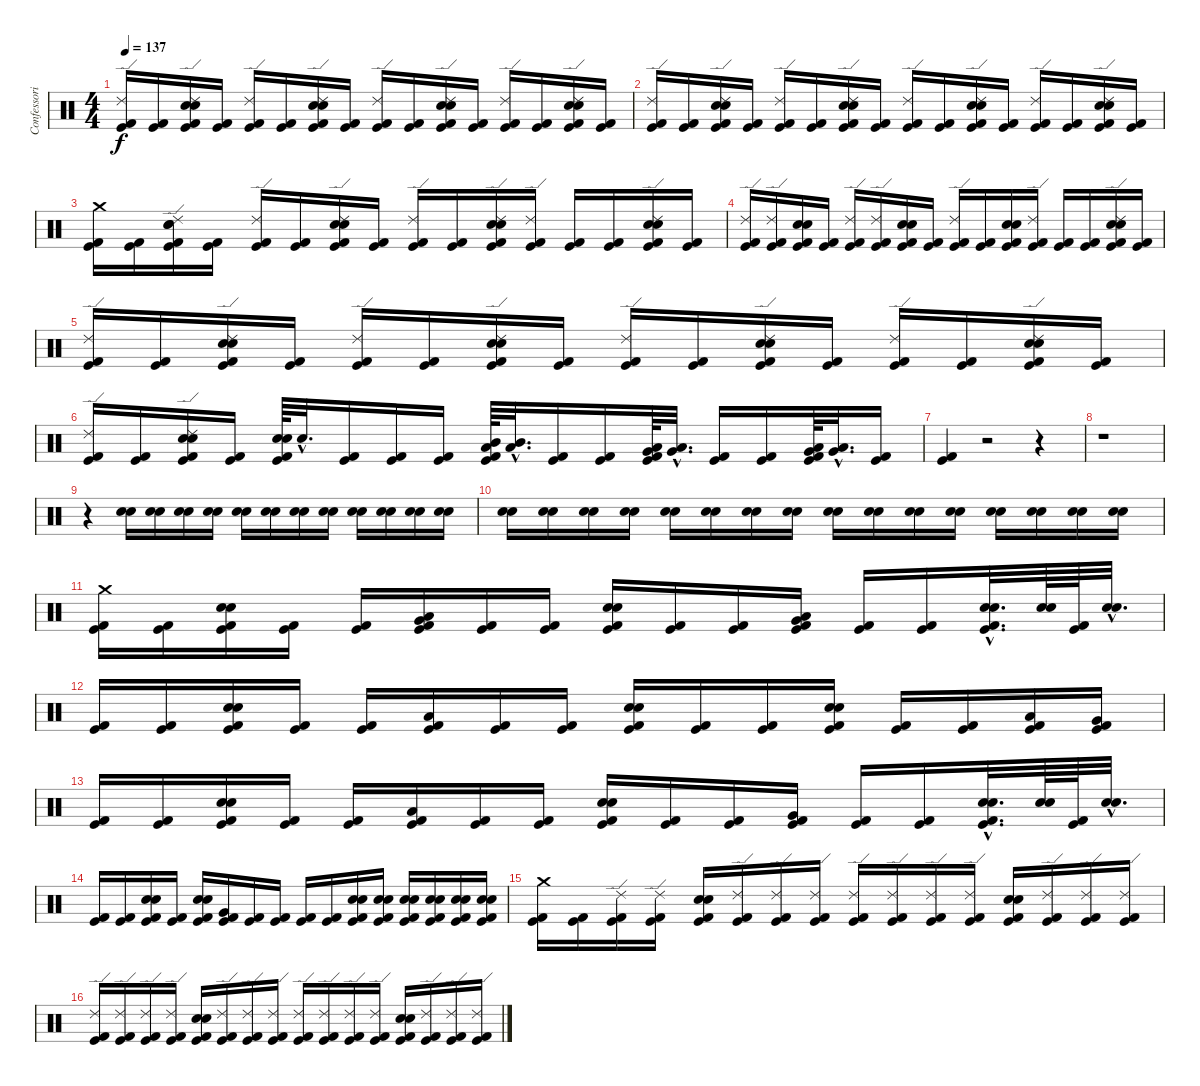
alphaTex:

\track ("Confessori" "Confessori") {instrument percussion}
\staff {score}
\articulation defaults
\ts (4 4)
\tempo 137
\clef neutral
\ks c
("Ride (edge) 2" "Kick (hit) 2" "Kick (hit)").16{dy f} ("Kick (hit) 2" "Kick (hit)").16 ("Electric Snare (hit)" "Snare (hit) 2" "Ride (edge) 2" "Kick (hit) 2" "Kick (hit)").16 ("Kick (hit) 2" "Kick (hit)").16 ("Ride (edge) 2" "Kick (hit) 2" "Kick (hit)").16 ("Kick (hit) 2" "Kick (hit)").16 ("Electric Snare (hit)" "Snare (hit) 2" "Ride (edge) 2" "Kick (hit) 2" "Kick (hit)").16 ("Kick (hit) 2" "Kick (hit)").16 ("Ride (edge) 2" "Kick (hit) 2" "Kick (hit)").16 ("Kick (hit) 2" "Kick (hit)").16 ("Electric Snare (hit)" "Snare (hit) 2" "Ride (edge) 2" "Kick (hit) 2" "Kick (hit)").16 ("Kick (hit) 2" "Kick (hit)").16 ("Ride (edge) 2" "Kick (hit) 2" "Kick (hit)").16 ("Kick (hit) 2" "Kick (hit)").16 ("Electric Snare (hit)" "Snare (hit) 2" "Ride (edge) 2" "Kick (hit) 2" "Kick (hit)").16 ("Kick (hit) 2" "Kick (hit)").16 |
("Ride (edge) 2" "Kick (hit) 2" "Kick (hit)").16 ("Kick (hit) 2" "Kick (hit)").16 ("Electric Snare (hit)" "Snare (hit) 2" "Ride (edge) 2" "Kick (hit) 2" "Kick (hit)").16 ("Kick (hit) 2" "Kick (hit)").16 ("Ride (edge) 2" "Kick (hit) 2" "Kick (hit)").16 ("Kick (hit) 2" "Kick (hit)").16 ("Electric Snare (hit)" "Snare (hit) 2" "Ride (edge) 2" "Kick (hit) 2" "Kick (hit)").16 ("Kick (hit) 2" "Kick (hit)").16 ("Ride (edge) 2" "Kick (hit) 2" "Kick (hit)").16 ("Kick (hit) 2" "Kick (hit)").16 ("Electric Snare (hit)" "Snare (hit) 2" "Ride (edge) 2" "Kick (hit) 2" "Kick (hit)").16 ("Kick (hit) 2" "Kick (hit)").16 ("Ride (edge) 2" "Kick (hit) 2" "Kick (hit)").16 ("Kick (hit) 2" "Kick (hit)").16 ("Electric Snare (hit)" "Snare (hit) 2" "Ride (edge) 2" "Kick (hit) 2" "Kick (hit)").16 ("Kick (hit) 2" "Kick (hit)").16 |
("Crash medium (hit)" "Kick (hit) 2" "Kick (hit)").16 ("Kick (hit) 2" "Kick (hit)").16 ("Electric Snare (hit)" "Snare (hit) 2" "Ride (edge) 2" "Kick (hit) 2" "Kick (hit)").16 ("Kick (hit) 2" "Kick (hit)").16 ("Ride (edge) 2" "Kick (hit) 2" "Kick (hit)").16 ("Kick (hit) 2" "Kick (hit)").16 ("Electric Snare (hit)" "Snare (hit) 2" "Ride (edge) 2" "Kick (hit) 2" "Kick (hit)").16 ("Kick (hit) 2" "Kick (hit)").16 ("Ride (edge) 2" "Kick (hit) 2" "Kick (hit)").16 ("Kick (hit) 2" "Kick (hit)").16 ("Electric Snare (hit)" "Snare (hit) 2" "Ride (edge) 2" "Kick (hit) 2" "Kick (hit)").16 ("Ride (edge) 2" "Kick (hit) 2" "Kick (hit)").16 ("Kick (hit) 2" "Kick (hit)").16 ("Kick (hit) 2" "Kick (hit)").16 ("Electric Snare (hit)" "Snare (hit) 2" "Ride (edge) 2" "Kick (hit) 2" "Kick (hit)").16 ("Kick (hit) 2" "Kick (hit)").16 |
("Ride (edge) 2" "Kick (hit) 2" "Kick (hit)").16 ("Ride (edge) 2" "Kick (hit) 2" "Kick (hit)").16 ("Electric Snare (hit)" "Snare (hit) 2" "Kick (hit) 2" "Kick (hit)").16 ("Kick (hit) 2" "Kick (hit)").16 ("Ride (edge) 2" "Kick (hit) 2" "Kick (hit)").16 ("Ride (edge) 2" "Kick (hit) 2" "Kick (hit)").16 ("Electric Snare (hit)" "Snare (hit) 2" "Kick (hit) 2" "Kick (hit)").16 ("Kick (hit) 2" "Kick (hit)").16 ("Ride (edge) 2" "Kick (hit) 2" "Kick (hit)").16 ("Kick (hit) 2" "Kick (hit)").16 ("Electric Snare (hit)" "Snare (hit) 2" "Kick (hit) 2" "Kick (hit)").16 ("Ride (edge) 2" "Kick (hit) 2" "Kick (hit)").16 ("Kick (hit) 2" "Kick (hit)").16 ("Kick (hit) 2" "Kick (hit)").16 ("Electric Snare (hit)" "Snare (hit) 2" "Ride (edge) 2" "Kick (hit) 2" "Kick (hit)").16 ("Kick (hit) 2" "Kick (hit)").16 |
("Ride (edge) 2" "Kick (hit) 2" "Kick (hit)").16 ("Kick (hit) 2" "Kick (hit)").16 ("Electric Snare (hit)" "Snare (hit) 2" "Ride (edge) 2" "Kick (hit) 2" "Kick (hit)").16 ("Kick (hit) 2" "Kick (hit)").16 ("Ride (edge) 2" "Kick (hit) 2" "Kick (hit)").16 ("Kick (hit) 2" "Kick (hit)").16 ("Electric Snare (hit)" "Snare (hit) 2" "Ride (edge) 2" "Kick (hit) 2" "Kick (hit)").16 ("Kick (hit) 2" "Kick (hit)").16 ("Ride (edge) 2" "Kick (hit) 2" "Kick (hit)").16 ("Kick (hit) 2" "Kick (hit)").16 ("Electric Snare (hit)" "Snare (hit) 2" "Ride (edge) 2" "Kick (hit) 2" "Kick (hit)").16 ("Kick (hit) 2" "Kick (hit)").16 ("Ride (edge) 2" "Kick (hit) 2" "Kick (hit)").16 ("Kick (hit) 2" "Kick (hit)").16 ("Electric Snare (hit)" "Snare (hit) 2" "Ride (edge) 2" "Kick (hit) 2" "Kick (hit)").16 ("Kick (hit) 2" "Kick (hit)").16 |
("Ride (edge) 2" "Kick (hit) 2" "Kick (hit)").16 ("Kick (hit) 2" "Kick (hit)").16 ("Electric Snare (hit)" "Snare (hit) 2" "Ride (edge) 2" "Kick (hit) 2" "Kick (hit)").16 ("Kick (hit) 2" "Kick (hit)").16 ("Electric Snare (hit)" "Snare (hit) 2" "Kick (hit) 2" "Kick (hit)").64 "Electric Snare (hit)"{hac}.32{d} ("Kick (hit) 2" "Kick (hit)").16 ("Kick (hit) 2" "Kick (hit)").16 ("Kick (hit) 2" "Kick (hit)").16 ("Low Tom (hit)" "Mid Tom (hit)" "Kick (hit) 2" "Kick (hit)").64 ("Mid Tom (hit)"{hac} "Low Tom (hit)"{hac}).32{d} ("Kick (hit) 2" "Kick (hit)").16 ("Kick (hit) 2" "Kick (hit)").16 ("Very Low Tom (hit)" "Low Tom (hit)" "Kick (hit) 2" "Kick (hit)").64 ("Low Tom (hit)"{hac} "Very Low Tom (hit)"{hac}).32{d} ("Kick (hit) 2" "Kick (hit)").16 ("Kick (hit) 2" "Kick (hit)").16 ("Low Floor Tom (hit)" "Very Low Tom (hit)" "Kick (hit) 2" "Kick (hit)").64 ("Very Low Tom (hit)"{hac} "Low Floor Tom (hit)"{hac}).32{d} ("Kick (hit) 2" "Kick (hit)").16 |
("Kick (hit)" "Kick (hit) 2").4 r.2 r.4 |
r.1 |
r.4 ("Snare (hit) 2" "Electric Snare (hit)").16 ("Electric Snare (hit)" "Snare (hit) 2").16 ("Electric Snare (hit)" "Snare (hit) 2").16 ("Electric Snare (hit)" "Snare (hit) 2").16 ("Electric Snare (hit)" "Snare (hit) 2").16 ("Electric Snare (hit)" "Snare (hit) 2").16 ("Snare (hit) 2" "Electric Snare (hit)").16 ("Snare (hit) 2" "Electric Snare (hit)").16 ("Snare (hit) 2" "Electric Snare (hit)").16 ("Electric Snare (hit)" "Snare (hit) 2").16 ("Electric Snare (hit)" "Snare (hit) 2").16 ("Electric Snare (hit)" "Snare (hit) 2").16 |
("Electric Snare (hit)" "Snare (hit) 2").16 ("Electric Snare (hit)" "Snare (hit) 2").16 ("Electric Snare (hit)" "Snare (hit) 2").16 ("Electric Snare (hit)" "Snare (hit) 2").16 ("Electric Snare (hit)" "Snare (hit) 2").16 ("Electric Snare (hit)" "Snare (hit) 2").16 ("Electric Snare (hit)" "Snare (hit) 2").16 ("Electric Snare (hit)" "Snare (hit) 2").16 ("Electric Snare (hit)" "Snare (hit) 2").16 ("Electric Snare (hit)" "Snare (hit) 2").16 ("Electric Snare (hit)" "Snare (hit) 2").16 ("Electric Snare (hit)" "Snare (hit) 2").16 ("Electric Snare (hit)" "Snare (hit) 2").16 ("Electric Snare (hit)" "Snare (hit) 2").16 ("Electric Snare (hit)" "Snare (hit) 2").16 ("Electric Snare (hit)" "Snare (hit) 2").16 |
("Crash medium (hit)" "Kick (hit) 2" "Kick (hit)").16 ("Kick (hit) 2" "Kick (hit)").16 ("Electric Snare (hit)" "Snare (hit) 2" "Kick (hit) 2" "Kick (hit)").16 ("Kick (hit) 2" "Kick (hit)").16 ("Kick (hit) 2" "Kick (hit)").16 ("Low Tom (hit)" "Very Low Tom (hit)" "Kick (hit) 2" "Kick (hit)").16 ("Kick (hit) 2" "Kick (hit)").16 ("Kick (hit) 2" "Kick (hit)").16 ("Electric Snare (hit)" "Snare (hit) 2" "Kick (hit) 2" "Kick (hit)").16 ("Kick (hit) 2" "Kick (hit)").16 ("Kick (hit) 2" "Kick (hit)").16 ("Low Tom (hit)" "Very Low Tom (hit)" "Kick (hit) 2" "Kick (hit)").16 ("Kick (hit) 2" "Kick (hit)").16 ("Kick (hit) 2" "Kick (hit)").16 ("Electric Snare (hit)"{hac} "Snare (hit) 2"{hac} "Kick (hit) 2"{hac} "Kick (hit)"{hac}).32{d} ("Electric Snare (hit)" "Snare (hit) 2").64 ("Kick (hit) 2" "Kick (hit)").64 ("Electric Snare (hit)"{hac} "Snare (hit) 2"{hac}).32{d} |
("Kick (hit) 2" "Kick (hit)").16 ("Kick (hit) 2" "Kick (hit)").16 ("Electric Snare (hit)" "Snare (hit) 2" "Kick (hit) 2" "Kick (hit)").16 ("Kick (hit) 2" "Kick (hit)").16 ("Kick (hit) 2" "Kick (hit)").16 ("Low Tom (hit)" "Kick (hit) 2" "Kick (hit)").16 ("Kick (hit) 2" "Kick (hit)").16 ("Kick (hit) 2" "Kick (hit)").16 ("Electric Snare (hit)" "Snare (hit) 2" "Kick (hit) 2" "Kick (hit)").16 ("Kick (hit) 2" "Kick (hit)").16 ("Kick (hit) 2" "Kick (hit)").16 ("Electric Snare (hit)" "Snare (hit) 2" "Kick (hit) 2" "Kick (hit)").16 ("Kick (hit) 2" "Kick (hit)").16 ("Kick (hit) 2" "Kick (hit)").16 ("Low Tom (hit)" "Kick (hit) 2" "Kick (hit)").16 ("Very Low Tom (hit)" "Kick (hit) 2" "Kick (hit)").16 |
("Kick (hit) 2" "Kick (hit)").16 ("Kick (hit) 2" "Kick (hit)").16 ("Electric Snare (hit)" "Snare (hit) 2" "Kick (hit) 2" "Kick (hit)").16 ("Kick (hit) 2" "Kick (hit)").16 ("Kick (hit) 2" "Kick (hit)").16 ("Low Tom (hit)" "Kick (hit) 2" "Kick (hit)").16 ("Kick (hit) 2" "Kick (hit)").16 ("Kick (hit) 2" "Kick (hit)").16 ("Electric Snare (hit)" "Snare (hit) 2" "Kick (hit) 2" "Kick (hit)").16 ("Kick (hit) 2" "Kick (hit)").16 ("Kick (hit) 2" "Kick (hit)").16 ("Very Low Tom (hit)" "Kick (hit) 2" "Kick (hit)").16 ("Kick (hit) 2" "Kick (hit)").16 ("Kick (hit) 2" "Kick (hit)").16 ("Electric Snare (hit)"{hac} "Snare (hit) 2"{hac} "Kick (hit) 2"{hac} "Kick (hit)"{hac}).32{d} ("Electric Snare (hit)" "Snare (hit) 2").64 ("Kick (hit) 2" "Kick (hit)").64 ("Electric Snare (hit)"{hac} "Snare (hit) 2"{hac}).32{d} |
("Kick (hit) 2" "Kick (hit)").16 ("Kick (hit) 2" "Kick (hit)").16 ("Electric Snare (hit)" "Snare (hit) 2" "Kick (hit) 2" "Kick (hit)").16 ("Kick (hit) 2" "Kick (hit)").16 ("Electric Snare (hit)" "Snare (hit) 2" "Kick (hit) 2" "Kick (hit)").16 ("Very Low Tom (hit)" "Kick (hit) 2" "Kick (hit)").16 ("Kick (hit) 2" "Kick (hit)").16 ("Kick (hit) 2" "Kick (hit)").16 ("Kick (hit) 2" "Kick (hit)").16 ("Kick (hit) 2" "Kick (hit)").16 ("Snare (hit) 2" "Electric Snare (hit)" "Kick (hit) 2" "Kick (hit)").16 ("Snare (hit) 2" "Electric Snare (hit)" "Kick (hit) 2" "Kick (hit)").16 ("Snare (hit) 2" "Electric Snare (hit)" "Kick (hit) 2" "Kick (hit)").16 ("Snare (hit) 2" "Electric Snare (hit)" "Kick (hit) 2" "Kick (hit)").16 ("Snare (hit) 2" "Electric Snare (hit)" "Kick (hit) 2" "Kick (hit)").16 ("Snare (hit) 2" "Electric Snare (hit)" "Kick (hit) 2" "Kick (hit)").16 |
("Crash medium (hit)" "Kick (hit) 2" "Kick (hit)").16 ("Kick (hit) 2" "Kick (hit)").16 ("Ride (edge) 2" "Kick (hit) 2" "Kick (hit)").16 ("Ride (edge) 2" "Kick (hit) 2" "Kick (hit)").16 ("Electric Snare (hit)" "Snare (hit) 2" "Kick (hit) 2" "Kick (hit)").16 ("Ride (edge) 2" "Kick (hit) 2" "Kick (hit)").16 ("Ride (edge) 2" "Kick (hit) 2" "Kick (hit)").16 ("Ride (edge) 2" "Kick (hit) 2" "Kick (hit)").16 ("Ride (edge) 2" "Kick (hit) 2" "Kick (hit)").16 ("Ride (edge) 2" "Kick (hit) 2" "Kick (hit)").16 ("Ride (edge) 2" "Kick (hit) 2" "Kick (hit)").16 ("Ride (edge) 2" "Kick (hit) 2" "Kick (hit)").16 ("Electric Snare (hit)" "Snare (hit) 2" "Kick (hit) 2" "Kick (hit)").16 ("Ride (edge) 2" "Kick (hit) 2" "Kick (hit)").16 ("Ride (edge) 2" "Kick (hit) 2" "Kick (hit)").16 ("Ride (edge) 2" "Kick (hit) 2" "Kick (hit)").16 |
("Ride (edge) 2" "Kick (hit) 2" "Kick (hit)").16 ("Ride (edge) 2" "Kick (hit) 2" "Kick (hit)").16 ("Ride (edge) 2" "Kick (hit) 2" "Kick (hit)").16 ("Ride (edge) 2" "Kick (hit) 2" "Kick (hit)").16 ("Electric Snare (hit)" "Snare (hit) 2" "Kick (hit) 2" "Kick (hit)").16 ("Ride (edge) 2" "Kick (hit) 2" "Kick (hit)").16 ("Ride (edge) 2" "Kick (hit) 2" "Kick (hit)").16 ("Ride (edge) 2" "Kick (hit) 2" "Kick (hit)").16 ("Ride (edge) 2" "Kick (hit) 2" "Kick (hit)").16 ("Ride (edge) 2" "Kick (hit) 2" "Kick (hit)").16 ("Ride (edge) 2" "Kick (hit) 2" "Kick (hit)").16 ("Ride (edge) 2" "Kick (hit) 2" "Kick (hit)").16 ("Electric Snare (hit)" "Snare (hit) 2" "Kick (hit) 2" "Kick (hit)").16 ("Ride (edge) 2" "Kick (hit) 2" "Kick (hit)").16 ("Ride (edge) 2" "Kick (hit) 2" "Kick (hit)").16 ("Ride (edge) 2" "Kick (hit) 2" "Kick (hit)").16
